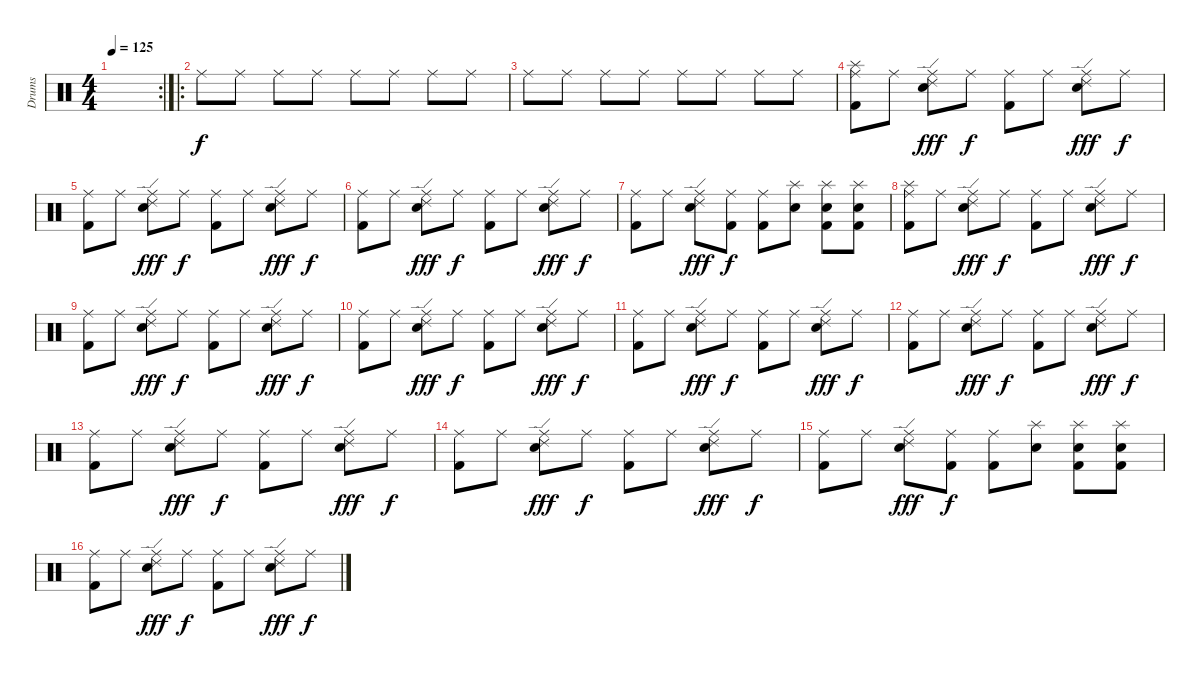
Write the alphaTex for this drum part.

\track ("Drums" "Drums") {instrument percussion}
\staff {score}
\articulation defaults
\rc 2
\ts (4 4)
\tempo 125
\clef neutral
\ks c
|
\ro "Ride (middle)".8 "Ride (middle)".8 "Ride (middle)".8 "Ride (middle)".8 "Ride (middle)".8 "Ride (middle)".8 "Ride (middle)".8 "Ride (middle)".8
|
"Ride (middle)".8 "Ride (middle)".8 "Ride (middle)".8 "Ride (middle)".8 "Ride (middle)".8 "Ride (middle)".8 "Ride (middle)".8 "Ride (middle)".8 |
("Ride (middle)" "Splash (hit)" "Kick (hit) 2").8 "Ride (middle)".8 ("Ride (middle)" "Electric Snare (hit)" "Ride (edge) 2").8{dy fff} "Ride (middle)".8{dy f} ("Ride (middle)" "Kick (hit) 2").8 "Ride (middle)".8 ("Ride (middle)" "Electric Snare (hit)" "Ride (edge) 2").8{dy fff} "Ride (middle)".8{dy f} |
("Ride (middle)" "Kick (hit) 2").8 "Ride (middle)".8 ("Ride (middle)" "Electric Snare (hit)" "Ride (edge) 2").8{dy fff} "Ride (middle)".8{dy f} ("Ride (middle)" "Kick (hit) 2").8 "Ride (middle)".8 ("Ride (middle)" "Electric Snare (hit)" "Ride (edge) 2").8{dy fff} "Ride (middle)".8{dy f} |
("Ride (middle)" "Kick (hit) 2").8 "Ride (middle)".8 ("Ride (middle)" "Electric Snare (hit)" "Ride (edge) 2").8{dy fff} "Ride (middle)".8{dy f} ("Ride (middle)" "Kick (hit) 2").8 "Ride (middle)".8 ("Ride (middle)" "Electric Snare (hit)" "Ride (edge) 2").8{dy fff} "Ride (middle)".8{dy f} |
("Ride (middle)" "Kick (hit) 2").8 "Ride (middle)".8 ("Ride (middle)" "Electric Snare (hit)" "Ride (edge) 2").8{dy fff} ("Ride (middle)" "Kick (hit) 2").8{dy f} ("Ride (middle)" "Kick (hit) 2").8 ("Splash (hit)" "Electric Snare (hit)").8 ("Splash (hit)" "Electric Snare (hit)" "Kick (hit) 2").8 ("Splash (hit)" "Electric Snare (hit)" "Kick (hit) 2").8 |
("Ride (middle)" "Splash (hit)" "Kick (hit) 2").8 "Ride (middle)".8 ("Ride (middle)" "Electric Snare (hit)" "Ride (edge) 2").8{dy fff} "Ride (middle)".8{dy f} ("Ride (middle)" "Kick (hit) 2").8 "Ride (middle)".8 ("Ride (middle)" "Electric Snare (hit)" "Ride (edge) 2").8{dy fff} "Ride (middle)".8{dy f} |
("Ride (middle)" "Kick (hit) 2").8 "Ride (middle)".8 ("Ride (middle)" "Electric Snare (hit)" "Ride (edge) 2").8{dy fff} "Ride (middle)".8{dy f} ("Ride (middle)" "Kick (hit) 2").8 "Ride (middle)".8 ("Ride (middle)" "Electric Snare (hit)" "Ride (edge) 2").8{dy fff} "Ride (middle)".8{dy f} |
("Ride (middle)" "Kick (hit) 2").8 "Ride (middle)".8 ("Ride (middle)" "Electric Snare (hit)" "Ride (edge) 2").8{dy fff} "Ride (middle)".8{dy f} ("Ride (middle)" "Kick (hit) 2").8 "Ride (middle)".8 ("Ride (middle)" "Electric Snare (hit)" "Ride (edge) 2").8{dy fff} "Ride (middle)".8{dy f} |
("Ride (middle)" "Kick (hit) 2").8 "Ride (middle)".8 ("Ride (middle)" "Electric Snare (hit)" "Ride (edge) 2").8{dy fff} "Ride (middle)".8{dy f} ("Ride (middle)" "Kick (hit) 2").8 "Ride (middle)".8 ("Ride (middle)" "Electric Snare (hit)" "Ride (edge) 2").8{dy fff} "Ride (middle)".8{dy f} |
("Ride (middle)" "Kick (hit) 2").8 "Ride (middle)".8 ("Ride (middle)" "Electric Snare (hit)" "Ride (edge) 2").8{dy fff} "Ride (middle)".8{dy f} ("Ride (middle)" "Kick (hit) 2").8 "Ride (middle)".8 ("Ride (middle)" "Electric Snare (hit)" "Ride (edge) 2").8{dy fff} "Ride (middle)".8{dy f} |
("Ride (middle)" "Kick (hit) 2").8 "Ride (middle)".8 ("Ride (middle)" "Electric Snare (hit)" "Ride (edge) 2").8{dy fff} "Ride (middle)".8{dy f} ("Ride (middle)" "Kick (hit) 2").8 "Ride (middle)".8 ("Ride (middle)" "Electric Snare (hit)" "Ride (edge) 2").8{dy fff} "Ride (middle)".8{dy f} |
("Ride (middle)" "Kick (hit) 2").8 "Ride (middle)".8 ("Ride (middle)" "Electric Snare (hit)" "Ride (edge) 2").8{dy fff} "Ride (middle)".8{dy f} ("Ride (middle)" "Kick (hit) 2").8 "Ride (middle)".8 ("Ride (middle)" "Electric Snare (hit)" "Ride (edge) 2").8{dy fff} "Ride (middle)".8{dy f} |
("Ride (middle)" "Kick (hit) 2").8 "Ride (middle)".8 ("Ride (middle)" "Electric Snare (hit)" "Ride (edge) 2").8{dy fff} ("Ride (middle)" "Kick (hit) 2").8{dy f} ("Ride (middle)" "Kick (hit) 2").8 ("Splash (hit)" "Electric Snare (hit)").8 ("Splash (hit)" "Electric Snare (hit)" "Kick (hit) 2").8 ("Splash (hit)" "Electric Snare (hit)" "Kick (hit) 2").8 |
("Ride (middle)" "Kick (hit) 2").8 "Ride (middle)".8 ("Ride (middle)" "Electric Snare (hit)" "Ride (edge) 2").8{dy fff} "Ride (middle)".8{dy f} ("Ride (middle)" "Kick (hit) 2").8 "Ride (middle)".8 ("Ride (middle)" "Electric Snare (hit)" "Ride (edge) 2").8{dy fff} "Ride (middle)".8{dy f}
